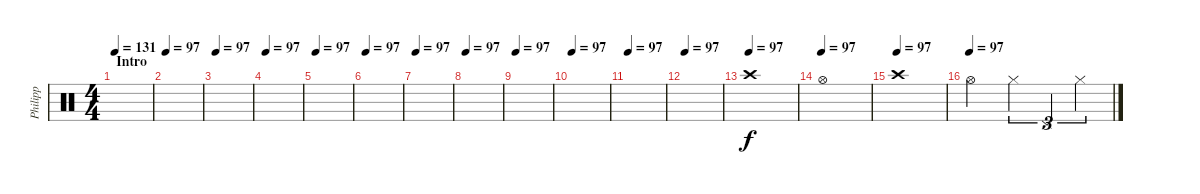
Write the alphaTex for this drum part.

\track ("Philipp" "Philipp") {instrument percussion}
\staff {score}
\articulation defaults
\ts (4 4)
\section ("" "Intro")
\tempo 131
\tempo 97
\tempo 131
\clef neutral
\ks c
|
\tempo 97
|
\tempo 97
|
\tempo 97
|
\tempo 97
|
\tempo 97
|
\tempo 97
|
\tempo 97
|
\tempo 97
|
\tempo 97
|
\tempo 97
|
\tempo 97
|
\tempo (97)
"Crash high (hit)".1 |
\tempo (97)
"Hi-Hat (open)".1 |
\tempo (97)
"Crash high (hit)".1 |
\tempo (97)
"Hi-Hat (open)".2 "Hi-Hat (closed)".4{tu (3 2)} "Pedal Hi-Hat (hit)".4{tu (3 2)} "Hi-Hat (closed)".4{tu (3 2)}
